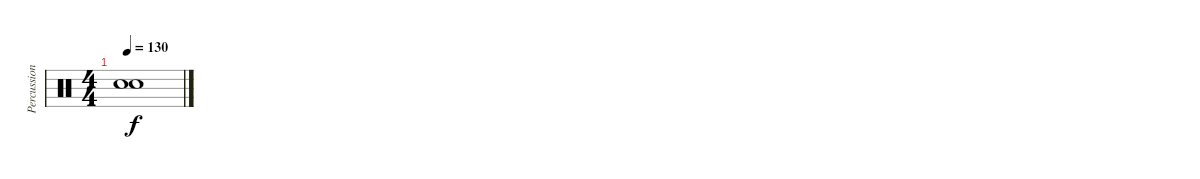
\track ("Percussion" "Percussion") {instrument percussion}
\staff {score}
\articulation defaults
\ts (4 4)
\tempo 130
\clef neutral
\ks c
("Snare (hit)"{t} "Snare (hit)"{t}).1{dy f}
